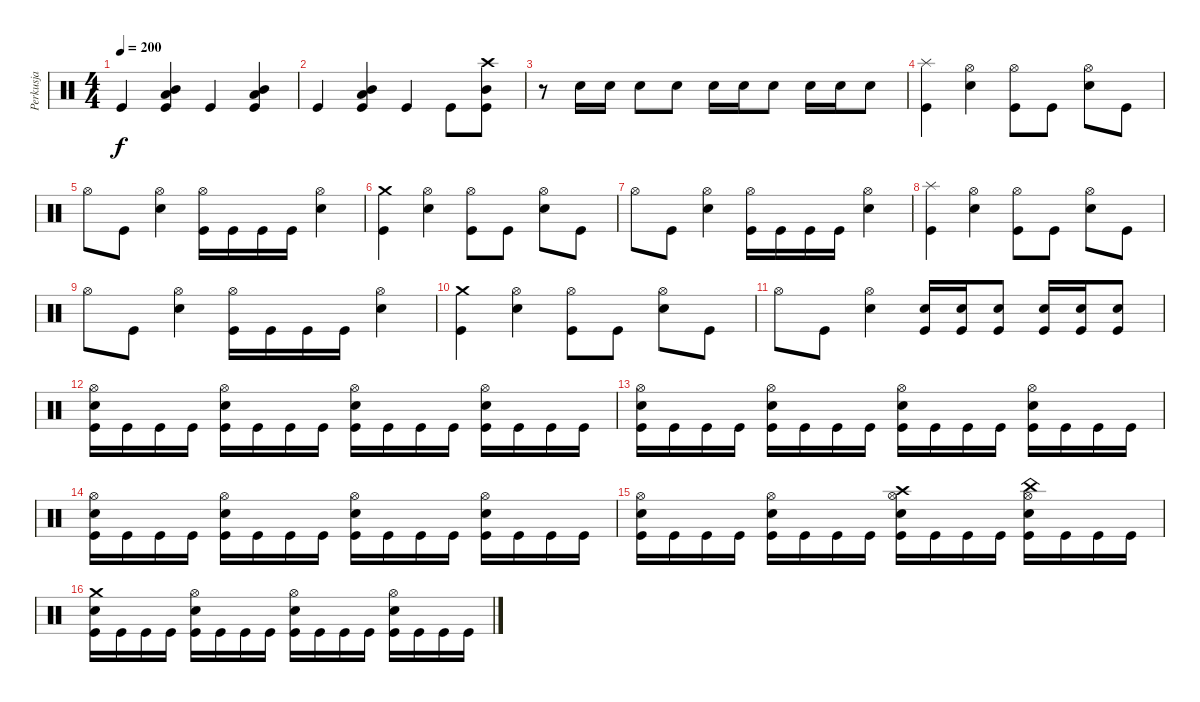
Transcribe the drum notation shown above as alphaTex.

\track ("Perkusja" "Perkusja") {instrument percussion}
\staff {score}
\articulation defaults
\ts (4 4)
\tempo 200
\clef neutral
\ks c "Kick (hit)".4{dy f}
("Low Tom (hit)" "Mid Tom (hit)" "Kick (hit)").4 "Kick (hit)".4 ("Low Tom (hit)" "Mid Tom (hit)" "Kick (hit)").4 |
"Kick (hit)".4 ("Mid Tom (hit)" "Low Tom (hit)" "Kick (hit)").4 "Kick (hit)".4 "Kick (hit)".8 ("Crash high (hit)" "Mid Tom (hit)" "Kick (hit)").8 |
r.8 "Electric Snare (hit)".16 "Electric Snare (hit)".16 "Electric Snare (hit)".8 "Electric Snare (hit)".8 "Electric Snare (hit)".16 "Electric Snare (hit)".16 "Electric Snare (hit)".8 "Electric Snare (hit)".16 "Electric Snare (hit)".16 "Electric Snare (hit)".8 |
("Splash (hit)" "Kick (hit)").4 ("Hi-Hat (open)" "Electric Snare (hit)").4 ("Hi-Hat (open)" "Kick (hit)").8 "Kick (hit)".8 ("Hi-Hat (open)" "Electric Snare (hit)").8 "Kick (hit)".8 |
"Hi-Hat (open)".8 "Kick (hit)".8 ("Hi-Hat (open)" "Electric Snare (hit)").4 ("Hi-Hat (open)" "Kick (hit)").16 "Kick (hit)".16 "Kick (hit)".16 "Kick (hit)".16 ("Hi-Hat (open)" "Electric Snare (hit)").4 |
("Crash medium (hit)" "Kick (hit)").4 ("Hi-Hat (open)" "Electric Snare (hit)").4 ("Hi-Hat (open)" "Kick (hit)").8 "Kick (hit)".8 ("Hi-Hat (open)" "Electric Snare (hit)").8 "Kick (hit)".8 |
"Hi-Hat (open)".8 "Kick (hit)".8 ("Hi-Hat (open)" "Electric Snare (hit)").4 ("Hi-Hat (open)" "Kick (hit)").16 "Kick (hit)".16 "Kick (hit)".16 "Kick (hit)".16 ("Hi-Hat (open)" "Electric Snare (hit)").4 |
("Splash (hit)" "Kick (hit)").4 ("Hi-Hat (open)" "Electric Snare (hit)").4 ("Hi-Hat (open)" "Kick (hit)").8 "Kick (hit)".8 ("Hi-Hat (open)" "Electric Snare (hit)").8 "Kick (hit)".8 |
"Hi-Hat (open)".8 "Kick (hit)".8 ("Hi-Hat (open)" "Electric Snare (hit)").4 ("Hi-Hat (open)" "Kick (hit)").16 "Kick (hit)".16 "Kick (hit)".16 "Kick (hit)".16 ("Hi-Hat (open)" "Electric Snare (hit)").4 |
("Crash medium (hit)" "Kick (hit)").4 ("Hi-Hat (open)" "Electric Snare (hit)").4 ("Hi-Hat (open)" "Kick (hit)").8 "Kick (hit)".8 ("Hi-Hat (open)" "Electric Snare (hit)").8 "Kick (hit)".8 |
"Hi-Hat (open)".8 "Kick (hit)".8 ("Hi-Hat (open)" "Electric Snare (hit)").4 ("Electric Snare (hit)" "Kick (hit)").16 ("Electric Snare (hit)" "Kick (hit)").16 ("Electric Snare (hit)" "Kick (hit)").8 ("Electric Snare (hit)" "Kick (hit)").16 ("Electric Snare (hit)" "Kick (hit)").16 ("Electric Snare (hit)" "Kick (hit)").8 |
("Hi-Hat (open)" "Electric Snare (hit)" "Kick (hit)").16 "Kick (hit)".16 "Kick (hit)".16 "Kick (hit)".16 ("Hi-Hat (open)" "Electric Snare (hit)" "Kick (hit)").16 "Kick (hit)".16 "Kick (hit)".16 "Kick (hit)".16 ("Hi-Hat (open)" "Electric Snare (hit)" "Kick (hit)").16 "Kick (hit)".16 "Kick (hit)".16 "Kick (hit)".16 ("Hi-Hat (open)" "Electric Snare (hit)" "Kick (hit)").16 "Kick (hit)".16 "Kick (hit)".16 "Kick (hit)".16 |
("Hi-Hat (open)" "Electric Snare (hit)" "Kick (hit)").16 "Kick (hit)".16 "Kick (hit)".16 "Kick (hit)".16 ("Hi-Hat (open)" "Electric Snare (hit)" "Kick (hit)").16 "Kick (hit)".16 "Kick (hit)".16 "Kick (hit)".16 ("Hi-Hat (open)" "Electric Snare (hit)" "Kick (hit)").16 "Kick (hit)".16 "Kick (hit)".16 "Kick (hit)".16 ("Hi-Hat (open)" "Electric Snare (hit)" "Kick (hit)").16 "Kick (hit)".16 "Kick (hit)".16 "Kick (hit)".16 |
("Hi-Hat (open)" "Electric Snare (hit)" "Kick (hit)").16 "Kick (hit)".16 "Kick (hit)".16 "Kick (hit)".16 ("Hi-Hat (open)" "Electric Snare (hit)" "Kick (hit)").16 "Kick (hit)".16 "Kick (hit)".16 "Kick (hit)".16 ("Hi-Hat (open)" "Electric Snare (hit)" "Kick (hit)").16 "Kick (hit)".16 "Kick (hit)".16 "Kick (hit)".16 ("Hi-Hat (open)" "Electric Snare (hit)" "Kick (hit)").16 "Kick (hit)".16 "Kick (hit)".16 "Kick (hit)".16 |
("Hi-Hat (open)" "Electric Snare (hit)" "Kick (hit)").16 "Kick (hit)".16 "Kick (hit)".16 "Kick (hit)".16 ("Hi-Hat (open)" "Electric Snare (hit)" "Kick (hit)").16 "Kick (hit)".16 "Kick (hit)".16 "Kick (hit)".16 ("Crash high (hit)" "Hi-Hat (open)" "Electric Snare (hit)" "Kick (hit)").16 "Kick (hit)".16 "Kick (hit)".16 "Kick (hit)".16 ("China (hit)" "Hi-Hat (open)" "Electric Snare (hit)" "Kick (hit)").16 "Kick (hit)".16 "Kick (hit)".16 "Kick (hit)".16 |
("Crash medium (hit)" "Electric Snare (hit)" "Kick (hit)").16 "Kick (hit)".16 "Kick (hit)".16 "Kick (hit)".16 ("Hi-Hat (open)" "Electric Snare (hit)" "Kick (hit)").16 "Kick (hit)".16 "Kick (hit)".16 "Kick (hit)".16 ("Hi-Hat (open)" "Electric Snare (hit)" "Kick (hit)").16 "Kick (hit)".16 "Kick (hit)".16 "Kick (hit)".16 ("Hi-Hat (open)" "Electric Snare (hit)" "Kick (hit)").16 "Kick (hit)".16 "Kick (hit)".16 "Kick (hit)".16
